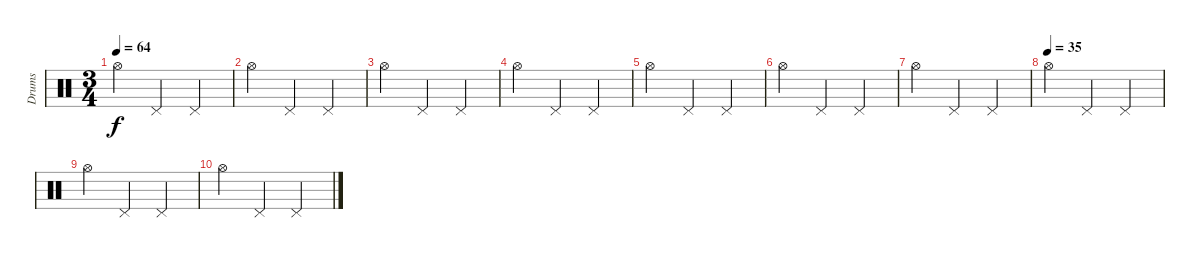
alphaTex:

\track ("Drums" "Drums") {instrument percussion}
\staff {score}
\articulation defaults
\ts (3 4)
\tempo 64
\clef neutral
\ks c "Hi-Hat (open)".4{dy f} "Pedal Hi-Hat (hit)".4 "Pedal Hi-Hat (hit)".4
|
"Hi-Hat (open)".4 "Pedal Hi-Hat (hit)".4 "Pedal Hi-Hat (hit)".4 |
"Hi-Hat (open)".4 "Pedal Hi-Hat (hit)".4 "Pedal Hi-Hat (hit)".4 |
"Hi-Hat (open)".4 "Pedal Hi-Hat (hit)".4 "Pedal Hi-Hat (hit)".4 |
"Hi-Hat (open)".4 "Pedal Hi-Hat (hit)".4 "Pedal Hi-Hat (hit)".4 |
"Hi-Hat (open)".4 "Pedal Hi-Hat (hit)".4 "Pedal Hi-Hat (hit)".4 |
"Hi-Hat (open)".4 "Pedal Hi-Hat (hit)".4 "Pedal Hi-Hat (hit)".4 |
\tempo (35)
"Hi-Hat (open)".4 "Pedal Hi-Hat (hit)".4 "Pedal Hi-Hat (hit)".4 |
"Hi-Hat (open)".4 "Pedal Hi-Hat (hit)".4 "Pedal Hi-Hat (hit)".4 |
"Hi-Hat (open)".4 "Pedal Hi-Hat (hit)".4 "Pedal Hi-Hat (hit)".4
